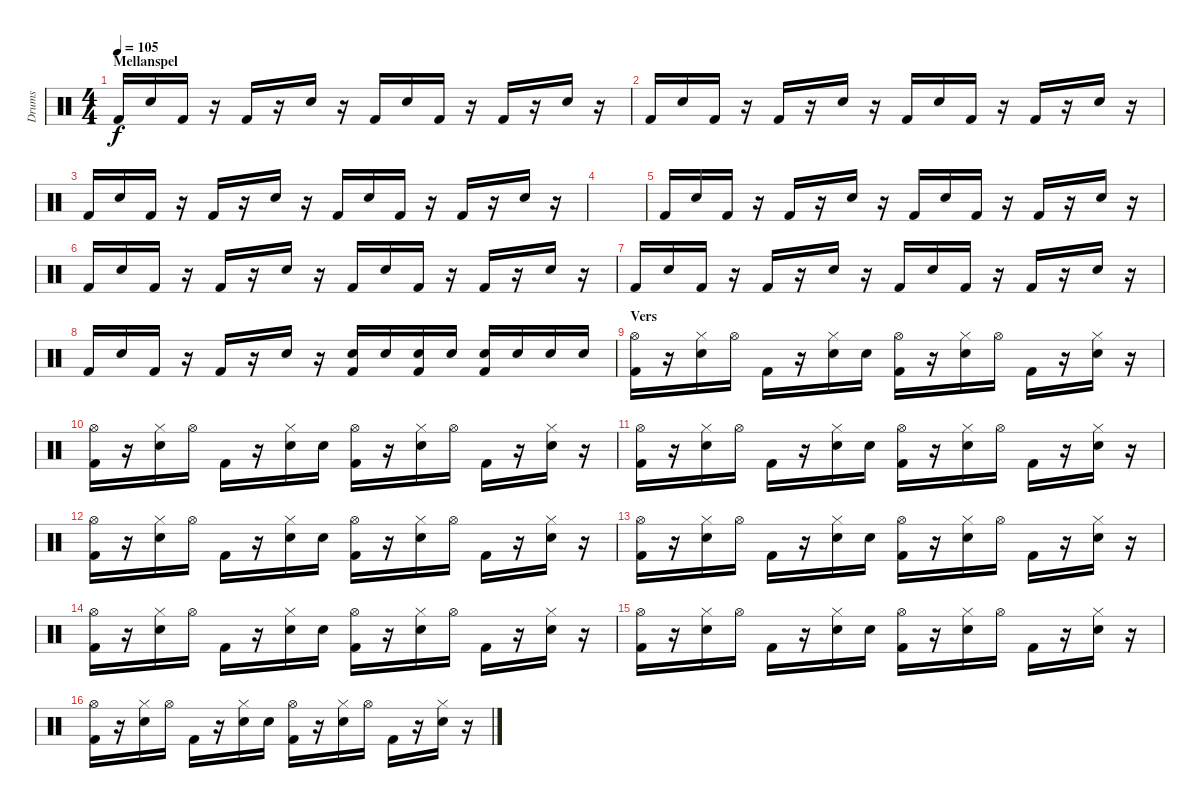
\track ("Drums" "Drums") {instrument percussion}
\staff {score}
\articulation defaults
\ts (4 4)
\section ("" "Mellanspel")
\tempo 105
\clef neutral
\ks c "Kick (hit) 2".16{dy f} "Snare (hit) 2".16 "Kick (hit) 2".16
r.16 "Kick (hit) 2".16 r.16 "Snare (hit) 2".16 r.16 "Kick (hit) 2".16 "Snare (hit) 2".16 "Kick (hit) 2".16 r.16 "Kick (hit) 2".16 r.16 "Snare (hit) 2".16 r.16 |
"Kick (hit) 2".16 "Snare (hit) 2".16 "Kick (hit) 2".16 r.16 "Kick (hit) 2".16 r.16 "Snare (hit) 2".16 r.16 "Kick (hit) 2".16 "Snare (hit) 2".16 "Kick (hit) 2".16 r.16 "Kick (hit) 2".16 r.16 "Snare (hit) 2".16 r.16 |
"Kick (hit) 2".16 "Snare (hit) 2".16 "Kick (hit) 2".16 r.16 "Kick (hit) 2".16 r.16 "Snare (hit) 2".16 r.16 "Kick (hit) 2".16 "Snare (hit) 2".16 "Kick (hit) 2".16 r.16 "Kick (hit) 2".16 r.16 "Snare (hit) 2".16 r.16 |
|
"Kick (hit) 2".16 "Snare (hit) 2".16 "Kick (hit) 2".16 r.16 "Kick (hit) 2".16 r.16 "Snare (hit) 2".16 r.16 "Kick (hit) 2".16 "Snare (hit) 2".16 "Kick (hit) 2".16 r.16 "Kick (hit) 2".16 r.16 "Snare (hit) 2".16 r.16 |
"Kick (hit) 2".16 "Snare (hit) 2".16 "Kick (hit) 2".16 r.16 "Kick (hit) 2".16 r.16 "Snare (hit) 2".16 r.16 "Kick (hit) 2".16 "Snare (hit) 2".16 "Kick (hit) 2".16 r.16 "Kick (hit) 2".16 r.16 "Snare (hit) 2".16 r.16 |
"Kick (hit) 2".16 "Snare (hit) 2".16 "Kick (hit) 2".16 r.16 "Kick (hit) 2".16 r.16 "Snare (hit) 2".16 r.16 "Kick (hit) 2".16 "Snare (hit) 2".16 "Kick (hit) 2".16 r.16 "Kick (hit) 2".16 r.16 "Snare (hit) 2".16 r.16 |
"Kick (hit) 2".16 "Snare (hit) 2".16 "Kick (hit) 2".16 r.16 "Kick (hit) 2".16 r.16 "Snare (hit) 2".16 r.16 ("Electric Snare (hit)" "Kick (hit) 2").16 "Electric Snare (hit)".16 ("Electric Snare (hit)" "Kick (hit) 2").16 "Electric Snare (hit)".16 ("Electric Snare (hit)" "Kick (hit) 2").16 "Electric Snare (hit)".16 "Electric Snare (hit)".16 "Electric Snare (hit)".16 |
\section ("" "Vers")
("Hi-Hat (open)" "Kick (hit) 2").16 r.16 ("Hi-Hat (closed)" "Snare (hit) 2").16 "Hi-Hat (open)".16 "Kick (hit) 2".16 r.16 ("Hi-Hat (closed)" "Snare (hit) 2").16 "Snare (hit) 2".16 ("Hi-Hat (open)" "Kick (hit) 2").16 r.16 ("Hi-Hat (closed)" "Snare (hit) 2").16 "Hi-Hat (open)".16 "Kick (hit) 2".16 r.16 ("Hi-Hat (closed)" "Snare (hit) 2").16 r.16 |
("Hi-Hat (open)" "Kick (hit) 2").16 r.16 ("Hi-Hat (closed)" "Snare (hit) 2").16 "Hi-Hat (open)".16 "Kick (hit) 2".16 r.16 ("Hi-Hat (closed)" "Snare (hit) 2").16 "Snare (hit) 2".16 ("Hi-Hat (open)" "Kick (hit) 2").16 r.16 ("Hi-Hat (closed)" "Snare (hit) 2").16 "Hi-Hat (open)".16 "Kick (hit) 2".16 r.16 ("Hi-Hat (closed)" "Snare (hit) 2").16 r.16 |
("Hi-Hat (open)" "Kick (hit) 2").16 r.16 ("Hi-Hat (closed)" "Snare (hit) 2").16 "Hi-Hat (open)".16 "Kick (hit) 2".16 r.16 ("Hi-Hat (closed)" "Snare (hit) 2").16 "Snare (hit) 2".16 ("Hi-Hat (open)" "Kick (hit) 2").16 r.16 ("Hi-Hat (closed)" "Snare (hit) 2").16 "Hi-Hat (open)".16 "Kick (hit) 2".16 r.16 ("Hi-Hat (closed)" "Snare (hit) 2").16 r.16 |
("Hi-Hat (open)" "Kick (hit) 2").16 r.16 ("Hi-Hat (closed)" "Snare (hit) 2").16 "Hi-Hat (open)".16 "Kick (hit) 2".16 r.16 ("Hi-Hat (closed)" "Snare (hit) 2").16 "Snare (hit) 2".16 ("Hi-Hat (open)" "Kick (hit) 2").16 r.16 ("Hi-Hat (closed)" "Snare (hit) 2").16 "Hi-Hat (open)".16 "Kick (hit) 2".16 r.16 ("Hi-Hat (closed)" "Snare (hit) 2").16 r.16 |
("Hi-Hat (open)" "Kick (hit) 2").16 r.16 ("Hi-Hat (closed)" "Snare (hit) 2").16 "Hi-Hat (open)".16 "Kick (hit) 2".16 r.16 ("Hi-Hat (closed)" "Snare (hit) 2").16 "Snare (hit) 2".16 ("Hi-Hat (open)" "Kick (hit) 2").16 r.16 ("Hi-Hat (closed)" "Snare (hit) 2").16 "Hi-Hat (open)".16 "Kick (hit) 2".16 r.16 ("Hi-Hat (closed)" "Snare (hit) 2").16 r.16 |
("Hi-Hat (open)" "Kick (hit) 2").16 r.16 ("Hi-Hat (closed)" "Snare (hit) 2").16 "Hi-Hat (open)".16 "Kick (hit) 2".16 r.16 ("Hi-Hat (closed)" "Snare (hit) 2").16 "Snare (hit) 2".16 ("Hi-Hat (open)" "Kick (hit) 2").16 r.16 ("Hi-Hat (closed)" "Snare (hit) 2").16 "Hi-Hat (open)".16 "Kick (hit) 2".16 r.16 ("Hi-Hat (closed)" "Snare (hit) 2").16 r.16 |
("Hi-Hat (open)" "Kick (hit) 2").16 r.16 ("Hi-Hat (closed)" "Snare (hit) 2").16 "Hi-Hat (open)".16 "Kick (hit) 2".16 r.16 ("Hi-Hat (closed)" "Snare (hit) 2").16 "Snare (hit) 2".16 ("Hi-Hat (open)" "Kick (hit) 2").16 r.16 ("Hi-Hat (closed)" "Snare (hit) 2").16 "Hi-Hat (open)".16 "Kick (hit) 2".16 r.16 ("Hi-Hat (closed)" "Snare (hit) 2").16 r.16 |
("Hi-Hat (open)" "Kick (hit) 2").16 r.16 ("Hi-Hat (closed)" "Snare (hit) 2").16 "Hi-Hat (open)".16 "Kick (hit) 2".16 r.16 ("Hi-Hat (closed)" "Snare (hit) 2").16 "Snare (hit) 2".16 ("Hi-Hat (open)" "Kick (hit) 2").16 r.16 ("Hi-Hat (closed)" "Snare (hit) 2").16 "Hi-Hat (open)".16 "Kick (hit) 2".16 r.16 ("Hi-Hat (closed)" "Snare (hit) 2").16 r.16
